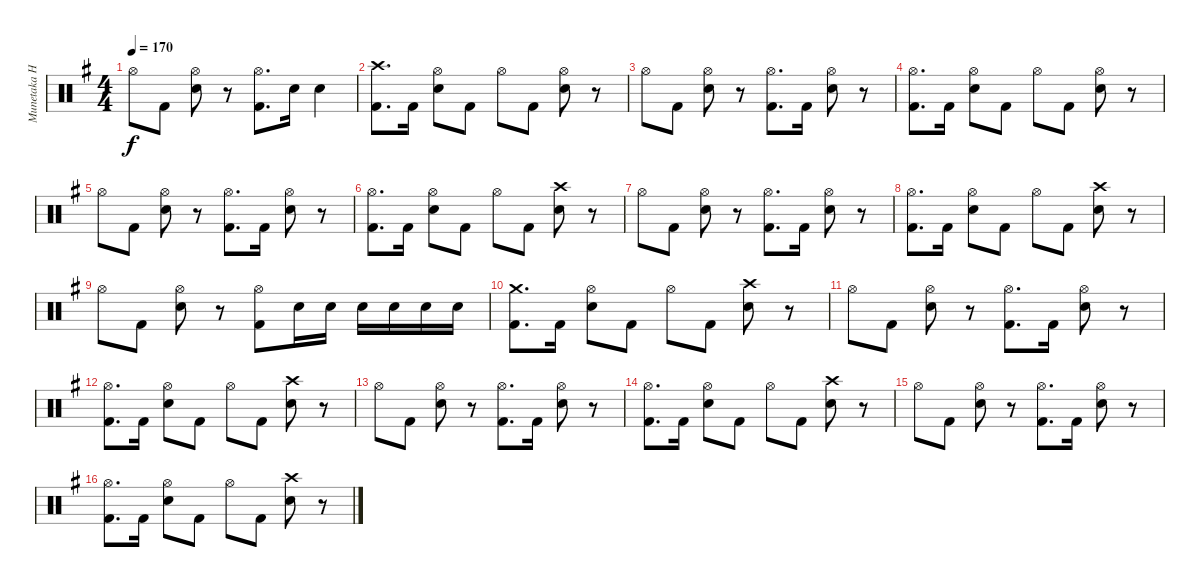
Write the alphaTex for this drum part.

\track ("Munetaka Higuchi" "Munetaka H") {instrument percussion}
\staff {score}
\articulation defaults
\ts (4 4)
\tempo 170
\clef neutral
\ks eminor "Hi-Hat (open)".8{dy f} "Kick (hit) 2".8
("Hi-Hat (open)" "Electric Snare (hit)").8 r.8 ("Hi-Hat (open)" "Kick (hit) 2").8{d} "Electric Snare (hit)".16 "Electric Snare (hit)".4 |
("Crash high (hit)" "Kick (hit) 2").8{d} "Kick (hit) 2".16 ("Hi-Hat (open)" "Electric Snare (hit)").8 "Kick (hit) 2".8 "Hi-Hat (open)".8 "Kick (hit) 2".8 ("Hi-Hat (open)" "Electric Snare (hit)").8 r.8 |
"Hi-Hat (open)".8 "Kick (hit) 2".8 ("Hi-Hat (open)" "Electric Snare (hit)").8 r.8 ("Hi-Hat (open)" "Kick (hit) 2").8{d} "Kick (hit) 2".16 ("Hi-Hat (open)" "Electric Snare (hit)").8 r.8 |
("Hi-Hat (open)" "Kick (hit) 2").8{d} "Kick (hit) 2".16 ("Hi-Hat (open)" "Electric Snare (hit)").8 "Kick (hit) 2".8 "Hi-Hat (open)".8 "Kick (hit) 2".8 ("Hi-Hat (open)" "Electric Snare (hit)").8 r.8 |
"Hi-Hat (open)".8 "Kick (hit) 2".8 ("Hi-Hat (open)" "Electric Snare (hit)").8 r.8 ("Hi-Hat (open)" "Kick (hit) 2").8{d} "Kick (hit) 2".16 ("Hi-Hat (open)" "Electric Snare (hit)").8 r.8 |
("Hi-Hat (open)" "Kick (hit) 2").8{d} "Kick (hit) 2".16 ("Hi-Hat (open)" "Electric Snare (hit)").8 "Kick (hit) 2".8 "Hi-Hat (open)".8 "Kick (hit) 2".8 ("Crash high (hit)" "Electric Snare (hit)").8 r.8 |
"Hi-Hat (open)".8 "Kick (hit) 2".8 ("Hi-Hat (open)" "Electric Snare (hit)").8 r.8 ("Hi-Hat (open)" "Kick (hit) 2").8{d} "Kick (hit) 2".16 ("Hi-Hat (open)" "Electric Snare (hit)").8 r.8 |
("Hi-Hat (open)" "Kick (hit) 2").8{d} "Kick (hit) 2".16 ("Hi-Hat (open)" "Electric Snare (hit)").8 "Kick (hit) 2".8 "Hi-Hat (open)".8 "Kick (hit) 2".8 ("Crash high (hit)" "Electric Snare (hit)").8 r.8 |
"Hi-Hat (open)".8 "Kick (hit) 2".8 ("Hi-Hat (open)" "Electric Snare (hit)").8 r.8 ("Hi-Hat (open)" "Kick (hit) 2").8 "Electric Snare (hit)".16 "Electric Snare (hit)".16 "Electric Snare (hit)".16 "Electric Snare (hit)".16 "Electric Snare (hit)".16 "Electric Snare (hit)".16 |
("Crash medium (hit)" "Kick (hit) 2").8{d} "Kick (hit) 2".16 ("Hi-Hat (open)" "Electric Snare (hit)").8 "Kick (hit) 2".8 "Hi-Hat (open)".8 "Kick (hit) 2".8 ("Crash high (hit)" "Electric Snare (hit)").8 r.8 |
"Hi-Hat (open)".8 "Kick (hit) 2".8 ("Hi-Hat (open)" "Electric Snare (hit)").8 r.8 ("Hi-Hat (open)" "Kick (hit) 2").8{d} "Kick (hit) 2".16 ("Hi-Hat (open)" "Electric Snare (hit)").8 r.8 |
("Hi-Hat (open)" "Kick (hit) 2").8{d} "Kick (hit) 2".16 ("Hi-Hat (open)" "Electric Snare (hit)").8 "Kick (hit) 2".8 "Hi-Hat (open)".8 "Kick (hit) 2".8 ("Crash high (hit)" "Electric Snare (hit)").8 r.8 |
"Hi-Hat (open)".8 "Kick (hit) 2".8 ("Hi-Hat (open)" "Electric Snare (hit)").8 r.8 ("Hi-Hat (open)" "Kick (hit) 2").8{d} "Kick (hit) 2".16 ("Hi-Hat (open)" "Electric Snare (hit)").8 r.8 |
("Hi-Hat (open)" "Kick (hit) 2").8{d} "Kick (hit) 2".16 ("Hi-Hat (open)" "Electric Snare (hit)").8 "Kick (hit) 2".8 "Hi-Hat (open)".8 "Kick (hit) 2".8 ("Crash high (hit)" "Electric Snare (hit)").8 r.8 |
"Hi-Hat (open)".8 "Kick (hit) 2".8 ("Hi-Hat (open)" "Electric Snare (hit)").8 r.8 ("Hi-Hat (open)" "Kick (hit) 2").8{d} "Kick (hit) 2".16 ("Hi-Hat (open)" "Electric Snare (hit)").8 r.8 |
("Hi-Hat (open)" "Kick (hit) 2").8{d} "Kick (hit) 2".16 ("Hi-Hat (open)" "Electric Snare (hit)").8 "Kick (hit) 2".8 "Hi-Hat (open)".8 "Kick (hit) 2".8 ("Crash high (hit)" "Electric Snare (hit)").8 r.8
